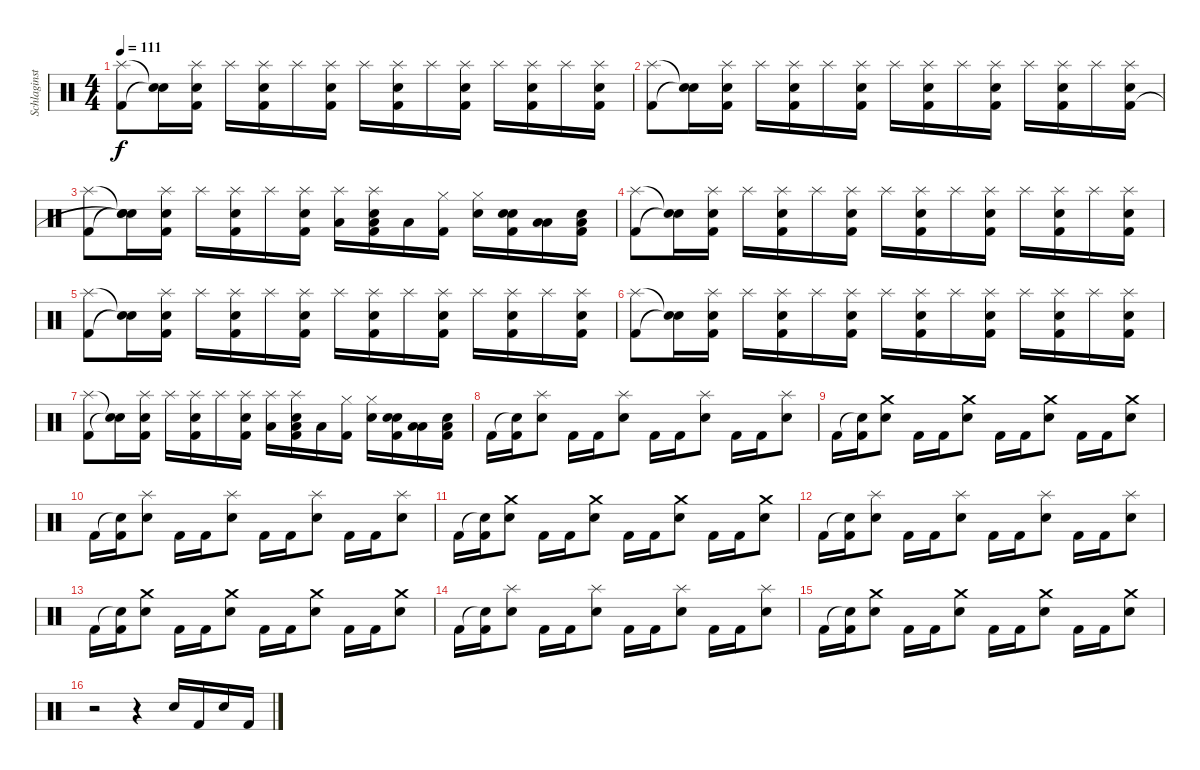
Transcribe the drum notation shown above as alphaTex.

\track ("Schlaginstrumente - Auswahl" "Schlaginst") {instrument percussion}
\staff {score}
\articulation defaults
\ts (4 4)
\tempo 111
\clef neutral
\ks c
("Splash (hit)" "Kick (hit) 2").8{dy f} ("Snare (hit)"{t} "Snare (hit)"{t}).16 ("Splash (hit)" "Electric Snare (hit)" "Kick (hit) 2").16 "Splash (hit)".16 ("Splash (hit)" "Electric Snare (hit)" "Kick (hit) 2").16 "Splash (hit)".16 ("Splash (hit)" "Electric Snare (hit)" "Kick (hit) 2").16 "Splash (hit)".16 ("Splash (hit)" "Electric Snare (hit)" "Kick (hit) 2").16 "Splash (hit)".16 ("Splash (hit)" "Electric Snare (hit)" "Kick (hit) 2").16 "Splash (hit)".16 ("Splash (hit)" "Electric Snare (hit)" "Kick (hit) 2").16 "Splash (hit)".16 ("Splash (hit)" "Electric Snare (hit)" "Kick (hit) 2").16 |
("Splash (hit)" "Kick (hit) 2").8 ("Snare (hit)"{t} "Snare (hit)"{t}).16 ("Splash (hit)" "Electric Snare (hit)" "Kick (hit) 2").16 "Splash (hit)".16 ("Splash (hit)" "Electric Snare (hit)" "Kick (hit) 2").16 "Splash (hit)".16 ("Splash (hit)" "Electric Snare (hit)" "Kick (hit) 2").16 "Splash (hit)".16 ("Splash (hit)" "Electric Snare (hit)" "Kick (hit) 2").16 "Splash (hit)".16 ("Splash (hit)" "Electric Snare (hit)" "Kick (hit) 2").16 "Splash (hit)".16 ("Splash (hit)" "Electric Snare (hit)" "Kick (hit) 2").16 "Splash (hit)".16 ("Splash (hit)" "Electric Snare (hit)" "Kick (hit) 2").16 |
("Splash (hit)" "Kick (hit) 2").8 ("Snare (hit)"{t} "Snare (hit)"{t} "Snare (hit)"{t}).16 ("Splash (hit)" "Electric Snare (hit)" "Kick (hit) 2").16 "Splash (hit)".16 ("Splash (hit)" "Electric Snare (hit)" "Kick (hit) 2").16 "Splash (hit)".16 ("Splash (hit)" "Electric Snare (hit)" "Kick (hit) 2").16 ("Low Floor Tom (hit)" "Splash (hit)").16 ("Low Floor Tom (hit)" "Splash (hit)" "Electric Snare (hit)" "Kick (hit) 2").16 "Low Floor Tom (hit)".16 ("Hi-Hat (closed)" "Kick (hit) 2").16 ("Hi-Hat (closed)" "Electric Snare (hit)").16 ("Electric Snare (hit)" "Electric Snare (hit)" "Kick (hit) 2").16 ("Low Tom (hit)" "Low Tom (hit)").16 ("Low Tom (hit)" "Electric Snare (hit)" "Kick (hit) 2").16 |
("Splash (hit)" "Kick (hit) 2").8 ("Snare (hit)"{t} "Snare (hit)"{t}).16 ("Splash (hit)" "Electric Snare (hit)" "Kick (hit) 2").16 "Splash (hit)".16 ("Splash (hit)" "Electric Snare (hit)" "Kick (hit) 2").16 "Splash (hit)".16 ("Splash (hit)" "Electric Snare (hit)" "Kick (hit) 2").16 "Splash (hit)".16 ("Splash (hit)" "Electric Snare (hit)" "Kick (hit) 2").16 "Splash (hit)".16 ("Splash (hit)" "Electric Snare (hit)" "Kick (hit) 2").16 "Splash (hit)".16 ("Splash (hit)" "Electric Snare (hit)" "Kick (hit) 2").16 "Splash (hit)".16 ("Splash (hit)" "Electric Snare (hit)" "Kick (hit) 2").16 |
("Splash (hit)" "Kick (hit) 2").8 ("Snare (hit)"{t} "Snare (hit)"{t}).16 ("Splash (hit)" "Electric Snare (hit)" "Kick (hit) 2").16 "Splash (hit)".16 ("Splash (hit)" "Electric Snare (hit)" "Kick (hit) 2").16 "Splash (hit)".16 ("Splash (hit)" "Electric Snare (hit)" "Kick (hit) 2").16 "Splash (hit)".16 ("Splash (hit)" "Electric Snare (hit)" "Kick (hit) 2").16 "Splash (hit)".16 ("Splash (hit)" "Electric Snare (hit)" "Kick (hit) 2").16 "Splash (hit)".16 ("Splash (hit)" "Electric Snare (hit)" "Kick (hit) 2").16 "Splash (hit)".16 ("Splash (hit)" "Electric Snare (hit)" "Kick (hit) 2").16 |
("Splash (hit)" "Kick (hit) 2").8 ("Snare (hit)"{t} "Snare (hit)"{t}).16 ("Splash (hit)" "Electric Snare (hit)" "Kick (hit) 2").16 "Splash (hit)".16 ("Splash (hit)" "Electric Snare (hit)" "Kick (hit) 2").16 "Splash (hit)".16 ("Splash (hit)" "Electric Snare (hit)" "Kick (hit) 2").16 "Splash (hit)".16 ("Splash (hit)" "Electric Snare (hit)" "Kick (hit) 2").16 "Splash (hit)".16 ("Splash (hit)" "Electric Snare (hit)" "Kick (hit) 2").16 "Splash (hit)".16 ("Splash (hit)" "Electric Snare (hit)" "Kick (hit) 2").16 "Splash (hit)".16 ("Splash (hit)" "Electric Snare (hit)" "Kick (hit) 2").16 |
("Splash (hit)" "Kick (hit) 2").8 ("Snare (hit)"{t} "Snare (hit)"{t}).16 ("Splash (hit)" "Electric Snare (hit)" "Kick (hit) 2").16 "Splash (hit)".16 ("Splash (hit)" "Electric Snare (hit)" "Kick (hit) 2").16 "Splash (hit)".16 ("Splash (hit)" "Electric Snare (hit)" "Kick (hit) 2").16 ("Low Floor Tom (hit)" "Splash (hit)").16 ("Low Floor Tom (hit)" "Splash (hit)" "Electric Snare (hit)" "Kick (hit) 2").16 "Low Floor Tom (hit)".16 ("Hi-Hat (closed)" "Kick (hit) 2").16 ("Hi-Hat (closed)" "Electric Snare (hit)").16 ("Electric Snare (hit)" "Electric Snare (hit)" "Kick (hit) 2").16 ("Low Tom (hit)" "Low Tom (hit)").16 ("Low Tom (hit)" "Electric Snare (hit)" "Kick (hit) 2").16 |
"Kick (hit) 2".16 ("Snare (hit)"{t} "Kick (hit) 2").16 ("Electric Snare (hit)" "Splash (hit)").8 "Kick (hit) 2".16 "Kick (hit) 2".16 ("Electric Snare (hit)" "Splash (hit)").8 "Kick (hit) 2".16 "Kick (hit) 2".16 ("Electric Snare (hit)" "Splash (hit)").8 "Kick (hit) 2".16 "Kick (hit) 2".16 ("Electric Snare (hit)" "Splash (hit)").8 |
"Kick (hit) 2".16 ("Snare (hit)"{t} "Kick (hit) 2").16 ("Electric Snare (hit)" "Crash medium (hit)").8 "Kick (hit) 2".16 "Kick (hit) 2".16 ("Electric Snare (hit)" "Crash medium (hit)").8 "Kick (hit) 2".16 "Kick (hit) 2".16 ("Electric Snare (hit)" "Crash medium (hit)").8 "Kick (hit) 2".16 "Kick (hit) 2".16 ("Electric Snare (hit)" "Crash medium (hit)").8 |
"Kick (hit) 2".16 ("Snare (hit)"{t} "Kick (hit) 2").16 ("Electric Snare (hit)" "Splash (hit)").8 "Kick (hit) 2".16 "Kick (hit) 2".16 ("Electric Snare (hit)" "Splash (hit)").8 "Kick (hit) 2".16 "Kick (hit) 2".16 ("Electric Snare (hit)" "Splash (hit)").8 "Kick (hit) 2".16 "Kick (hit) 2".16 ("Electric Snare (hit)" "Splash (hit)").8 |
"Kick (hit) 2".16 ("Snare (hit)"{t} "Kick (hit) 2").16 ("Electric Snare (hit)" "Crash medium (hit)").8 "Kick (hit) 2".16 "Kick (hit) 2".16 ("Electric Snare (hit)" "Crash medium (hit)").8 "Kick (hit) 2".16 "Kick (hit) 2".16 ("Electric Snare (hit)" "Crash medium (hit)").8 "Kick (hit) 2".16 "Kick (hit) 2".16 ("Electric Snare (hit)" "Crash medium (hit)").8 |
"Kick (hit) 2".16 ("Snare (hit)"{t} "Kick (hit) 2").16 ("Electric Snare (hit)" "Splash (hit)").8 "Kick (hit) 2".16 "Kick (hit) 2".16 ("Electric Snare (hit)" "Splash (hit)").8 "Kick (hit) 2".16 "Kick (hit) 2".16 ("Electric Snare (hit)" "Splash (hit)").8 "Kick (hit) 2".16 "Kick (hit) 2".16 ("Electric Snare (hit)" "Splash (hit)").8 |
"Kick (hit) 2".16 ("Snare (hit)"{t} "Kick (hit) 2").16 ("Electric Snare (hit)" "Crash medium (hit)").8 "Kick (hit) 2".16 "Kick (hit) 2".16 ("Electric Snare (hit)" "Crash medium (hit)").8 "Kick (hit) 2".16 "Kick (hit) 2".16 ("Electric Snare (hit)" "Crash medium (hit)").8 "Kick (hit) 2".16 "Kick (hit) 2".16 ("Electric Snare (hit)" "Crash medium (hit)").8 |
"Kick (hit) 2".16 ("Snare (hit)"{t} "Kick (hit) 2").16 ("Electric Snare (hit)" "Splash (hit)").8 "Kick (hit) 2".16 "Kick (hit) 2".16 ("Electric Snare (hit)" "Splash (hit)").8 "Kick (hit) 2".16 "Kick (hit) 2".16 ("Electric Snare (hit)" "Splash (hit)").8 "Kick (hit) 2".16 "Kick (hit) 2".16 ("Electric Snare (hit)" "Splash (hit)").8 |
"Kick (hit) 2".16 ("Snare (hit)"{t} "Kick (hit) 2").16 ("Electric Snare (hit)" "Crash medium (hit)").8 "Kick (hit) 2".16 "Kick (hit) 2".16 ("Electric Snare (hit)" "Crash medium (hit)").8 "Kick (hit) 2".16 "Kick (hit) 2".16 ("Electric Snare (hit)" "Crash medium (hit)").8 "Kick (hit) 2".16 "Kick (hit) 2".16 ("Electric Snare (hit)" "Crash medium (hit)").8 |
r.2 r.4 "Electric Snare (hit)".16 "Kick (hit) 2".16 "Electric Snare (hit)".16 "Kick (hit) 2".16
